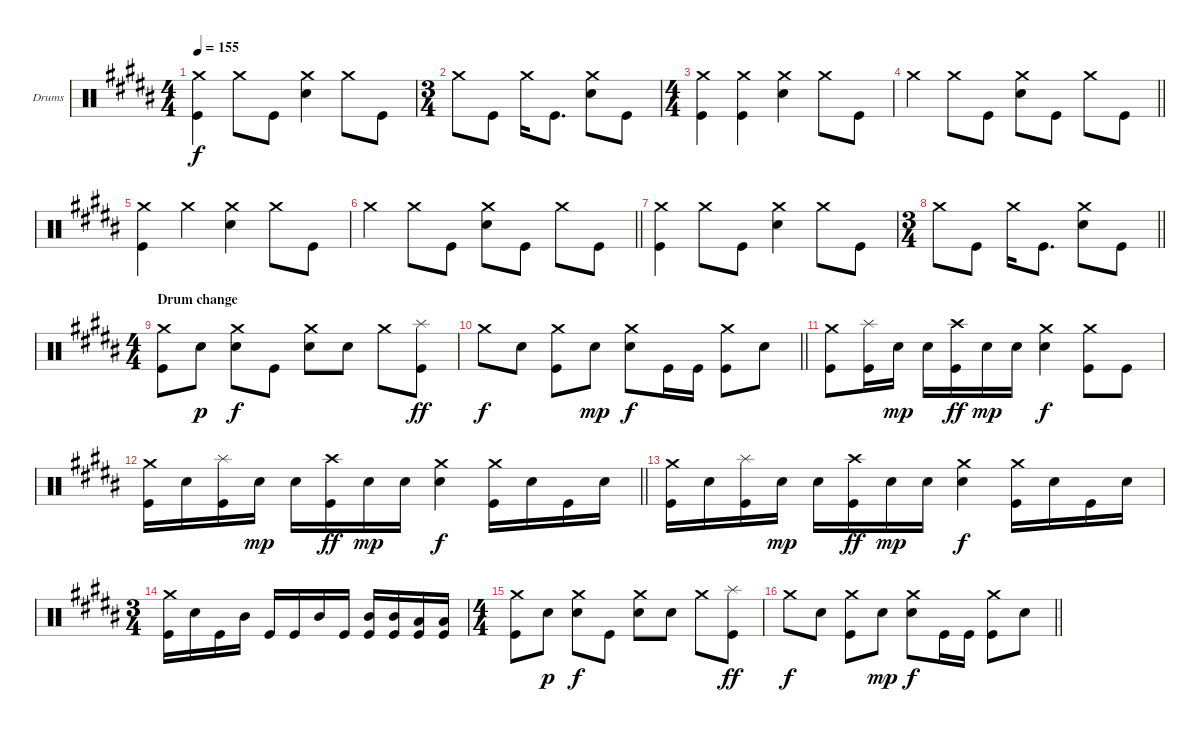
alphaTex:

\bracketExtendMode groupsimilarinstruments
\firstSystemTrackNameOrientation horizontal
\otherSystemsTrackNameOrientation horizontal
\track ("Navene Koperweis" "Drums") {instrument percussion}
\staff {score}
\articulation defaults
\ts (4 4)
\tempo 155
\clef neutral
\ks b
("Crash medium (hit)" "Kick (hit)").4{dy f} "Crash medium (hit)".8 "Kick (hit)".8 ("Crash medium (hit)" "Snare (hit) 2").4 "Crash medium (hit)".8 "Kick (hit)".8 |
\ts (3 4)
\beaming (8 2 2 2)
"Crash medium (hit)".8 "Kick (hit)".8 "Crash medium (hit)".16 "Kick (hit)".8{d} ("Crash medium (hit)" "Snare (hit) 2").8 "Kick (hit)".8 |
\ts (4 4)
\beaming (8 2 2 2 2)
("Crash medium (hit)" "Kick (hit)").4 ("Crash medium (hit)" "Kick (hit)").4 ("Crash medium (hit)" "Snare (hit) 2").4 "Crash medium (hit)".8 "Kick (hit)".8 |
\barLineRight lightlight "Crash medium (hit)".4 "Crash medium (hit)".8 "Kick (hit)".8
("Crash medium (hit)" "Snare (hit) 2").8 "Kick (hit)".8 "Crash medium (hit)".8 "Kick (hit)".8 |
("Crash medium (hit)" "Kick (hit)").4 "Crash medium (hit)".4 ("Crash medium (hit)" "Snare (hit) 2").4 "Crash medium (hit)".8 "Kick (hit)".8 |
\barLineRight lightlight "Crash medium (hit)".4 "Crash medium (hit)".8 "Kick (hit)".8
("Crash medium (hit)" "Snare (hit) 2").8 "Kick (hit)".8 "Crash medium (hit)".8 "Kick (hit)".8 |
("Crash medium (hit)" "Kick (hit)").4 "Crash medium (hit)".8 "Kick (hit)".8 ("Crash medium (hit)" "Snare (hit) 2").4 "Crash medium (hit)".8 "Kick (hit)".8 |
\ts (3 4)
\beaming (8 2 2 2)
\barLineRight lightlight "Crash medium (hit)".8 "Kick (hit)".8 "Crash medium (hit)".16 "Kick (hit)".8{d}
("Crash medium (hit)" "Snare (hit) 2").8 "Kick (hit)".8 |
\ts (4 4)
\beaming (8 2 2 2 2)
\section ("" "Drum change")
("Crash medium (hit)" "Kick (hit)").8 "Snare (hit) 2".8{dy p} ("Crash medium (hit)" "Snare (hit) 2").8{dy f} "Kick (hit)".8 ("Crash medium (hit)" "Snare (hit) 2").8 "Snare (hit) 2".8 "Crash medium (hit)".8 ("Splash (hit)" "Kick (hit)").8{dy ff} |
\barLineRight lightlight "Crash medium (hit)".8{dy f} "Snare (hit) 2".8
("Crash medium (hit)" "Kick (hit)").8 "Snare (hit) 2".8{dy mp} ("Crash medium (hit)" "Snare (hit) 2").8{dy f} "Kick (hit)".16 "Kick (hit)".16 ("Crash medium (hit)" "Kick (hit)").8 "Snare (hit) 2".8 |
("Crash medium (hit)" "Kick (hit)").8 ("Splash (hit)" "Kick (hit)").16 "Snare (hit) 2".16{dy mp} "Snare (hit) 2".16 ("Crash high (hit)" "Kick (hit)").16{dy ff} "Snare (hit) 2".16{dy mp} "Snare (hit) 2".16 ("Crash medium (hit)" "Snare (hit) 2").4{dy f} ("Crash medium (hit)" "Kick (hit)").8 "Kick (hit)".8 |
\barLineRight lightlight
("Crash medium (hit)" "Kick (hit)").16 "Snare (hit) 2".16 ("Splash (hit)" "Kick (hit)").16 "Snare (hit) 2".16{dy mp} "Snare (hit) 2".16 ("Crash high (hit)" "Kick (hit)").16{dy ff} "Snare (hit) 2".16{dy mp} "Snare (hit) 2".16 ("Crash medium (hit)" "Snare (hit) 2").4{dy f} ("Crash medium (hit)" "Kick (hit)").16 "Snare (hit) 2".16 "Kick (hit)".16 "Snare (hit) 2".16 |
("Crash medium (hit)" "Kick (hit)").16 "Snare (hit) 2".16 ("Splash (hit)" "Kick (hit)").16 "Snare (hit) 2".16{dy mp} "Snare (hit) 2".16 ("Crash high (hit)" "Kick (hit)").16{dy ff} "Snare (hit) 2".16{dy mp} "Snare (hit) 2".16 ("Crash medium (hit)" "Snare (hit) 2").4{dy f} ("Crash medium (hit)" "Kick (hit)").16 "Snare (hit) 2".16 "Kick (hit)".16 "Snare (hit) 2".16 |
\ts (3 4)
\beaming (8 2 2 2)
("Crash medium (hit)" "Kick (hit)").16 "Snare (hit) 2".16 "Kick (hit)".16 "Mid Tom (hit)".16 "Kick (hit)".16 "Kick (hit)".16 "Mid Tom (hit)".16 "Kick (hit)".16 ("Mid Tom (hit)" "Kick (hit)").16 ("Mid Tom (hit)" "Kick (hit)").16 ("Low Tom (hit)" "Kick (hit)").16 ("Low Tom (hit)" "Kick (hit)").16 |
\ts (4 4)
\beaming (8 2 2 2 2)
("Crash medium (hit)" "Kick (hit)").8 "Snare (hit) 2".8{dy p} ("Crash medium (hit)" "Snare (hit) 2").8{dy f} "Kick (hit)".8 ("Crash medium (hit)" "Snare (hit) 2").8 "Snare (hit) 2".8 "Crash medium (hit)".8 ("Splash (hit)" "Kick (hit)").8{dy ff} |
\barLineRight lightlight "Crash medium (hit)".8{dy f} "Snare (hit) 2".8
("Crash medium (hit)" "Kick (hit)").8 "Snare (hit) 2".8{dy mp} ("Crash medium (hit)" "Snare (hit) 2").8{dy f} "Kick (hit)".16 "Kick (hit)".16 ("Crash medium (hit)" "Kick (hit)").8 "Snare (hit) 2".8
